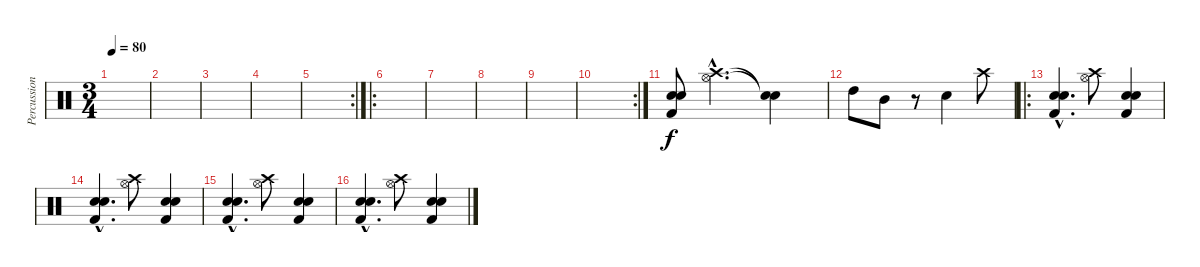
\track ("Percussions" "Percussion") {instrument percussion}
\staff {score}
\articulation defaults
\ts (3 4)
\tempo 80
\clef neutral
\ks c
|
|
|
|
\rc 2
|
\ro
|
|
|
|
\rc 2
|
("Snare (hit) 2" "Snare (hit) 2" "Kick (hit) 2").8 ("Crash high (hit)"{hac} "Hi-Hat (open)"{hac}).4{d} ("Snare (hit)"{t} "Snare (hit)"{t}).4 |
"High Tom (hit)".8 "Mid Tom (hit)".8 r.8 "Snare (hit) 2".4 "Crash high (hit)".8 |
\ro
("Snare (hit) 2"{hac} "Snare (hit) 2"{hac} "Kick (hit) 2"{hac}).4{d} ("Crash high (hit)" "Hi-Hat (open)").8 ("Snare (hit) 2" "Snare (hit) 2" "Kick (hit) 2").4 |
("Snare (hit) 2"{hac} "Snare (hit) 2"{hac} "Kick (hit) 2"{hac}).4{d} ("Crash high (hit)" "Hi-Hat (open)").8 ("Snare (hit) 2" "Snare (hit) 2" "Kick (hit) 2").4 |
("Snare (hit) 2"{hac} "Snare (hit) 2"{hac} "Kick (hit) 2"{hac}).4{d} ("Crash high (hit)" "Hi-Hat (open)").8 ("Snare (hit) 2" "Snare (hit) 2" "Kick (hit) 2").4 |
("Snare (hit) 2"{hac} "Snare (hit) 2"{hac} "Kick (hit) 2"{hac}).4{d} ("Crash high (hit)" "Hi-Hat (open)").8 ("Snare (hit) 2" "Snare (hit) 2" "Kick (hit) 2").4
